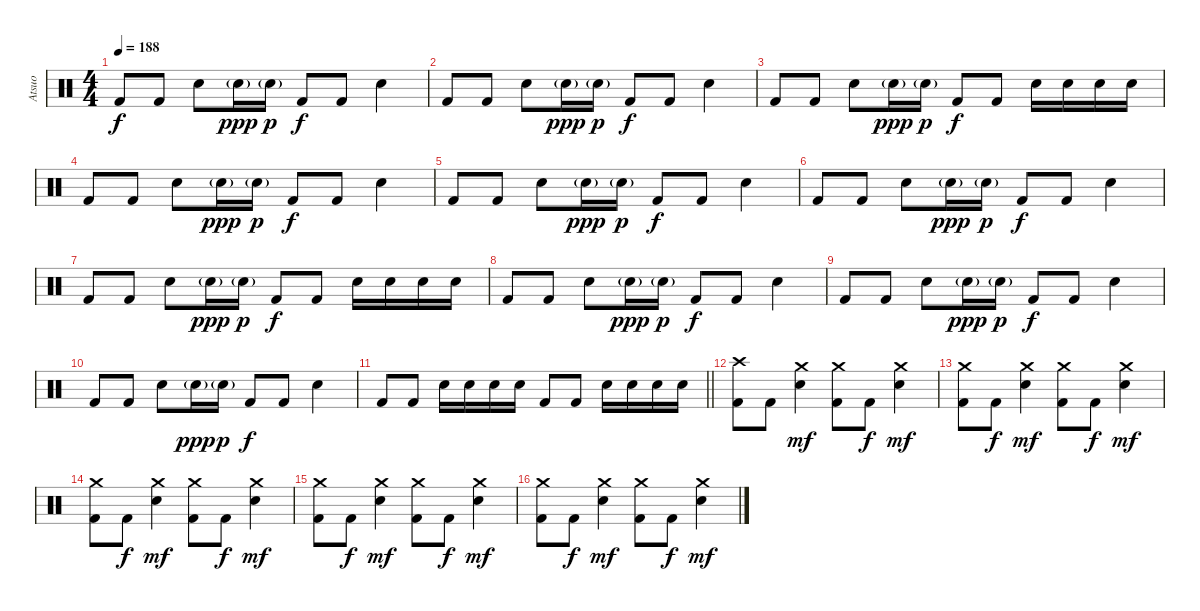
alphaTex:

\track ("Atsuo" "Atsuo") {instrument percussion}
\staff {score}
\articulation defaults
\ts (4 4)
\tempo 188
\clef neutral
\ks c "Kick (hit) 2".8{dy f} "Kick (hit) 2".8 "Electric Snare (hit)".8 "Electric Snare (hit)"{g}.16{dy ppp} "Electric Snare (hit)"{g}.16{dy p} "Kick (hit) 2".8{dy f} "Kick (hit) 2".8 "Electric Snare (hit)".4
|
"Kick (hit) 2".8 "Kick (hit) 2".8 "Electric Snare (hit)".8 "Electric Snare (hit)"{g}.16{dy ppp} "Electric Snare (hit)"{g}.16{dy p} "Kick (hit) 2".8{dy f} "Kick (hit) 2".8 "Electric Snare (hit)".4 |
"Kick (hit) 2".8 "Kick (hit) 2".8 "Electric Snare (hit)".8 "Electric Snare (hit)"{g}.16{dy ppp} "Electric Snare (hit)"{g}.16{dy p} "Kick (hit) 2".8{dy f} "Kick (hit) 2".8 "Electric Snare (hit)".16 "Electric Snare (hit)".16 "Electric Snare (hit)".16 "Electric Snare (hit)".16 |
"Kick (hit) 2".8 "Kick (hit) 2".8 "Electric Snare (hit)".8 "Electric Snare (hit)"{g}.16{dy ppp} "Electric Snare (hit)"{g}.16{dy p} "Kick (hit) 2".8{dy f} "Kick (hit) 2".8 "Electric Snare (hit)".4 |
"Kick (hit) 2".8 "Kick (hit) 2".8 "Electric Snare (hit)".8 "Electric Snare (hit)"{g}.16{dy ppp} "Electric Snare (hit)"{g}.16{dy p} "Kick (hit) 2".8{dy f} "Kick (hit) 2".8 "Electric Snare (hit)".4 |
"Kick (hit) 2".8 "Kick (hit) 2".8 "Electric Snare (hit)".8 "Electric Snare (hit)"{g}.16{dy ppp} "Electric Snare (hit)"{g}.16{dy p} "Kick (hit) 2".8{dy f} "Kick (hit) 2".8 "Electric Snare (hit)".4 |
"Kick (hit) 2".8 "Kick (hit) 2".8 "Electric Snare (hit)".8 "Electric Snare (hit)"{g}.16{dy ppp} "Electric Snare (hit)"{g}.16{dy p} "Kick (hit) 2".8{dy f} "Kick (hit) 2".8 "Electric Snare (hit)".16 "Electric Snare (hit)".16 "Electric Snare (hit)".16 "Electric Snare (hit)".16 |
"Kick (hit) 2".8 "Kick (hit) 2".8 "Electric Snare (hit)".8 "Electric Snare (hit)"{g}.16{dy ppp} "Electric Snare (hit)"{g}.16{dy p} "Kick (hit) 2".8{dy f} "Kick (hit) 2".8 "Electric Snare (hit)".4 |
"Kick (hit) 2".8 "Kick (hit) 2".8 "Electric Snare (hit)".8 "Electric Snare (hit)"{g}.16{dy ppp} "Electric Snare (hit)"{g}.16{dy p} "Kick (hit) 2".8{dy f} "Kick (hit) 2".8 "Electric Snare (hit)".4 |
"Kick (hit) 2".8 "Kick (hit) 2".8 "Electric Snare (hit)".8 "Electric Snare (hit)"{g}.16{dy ppp} "Electric Snare (hit)"{g}.16{dy p} "Kick (hit) 2".8{dy f} "Kick (hit) 2".8 "Electric Snare (hit)".4 |
\barLineRight lightlight "Kick (hit) 2".8 "Kick (hit) 2".8 "Electric Snare (hit)".16 "Electric Snare (hit)".16 "Electric Snare (hit)".16 "Electric Snare (hit)".16 "Kick (hit) 2".8 "Kick (hit) 2".8 "Electric Snare (hit)".16 "Electric Snare (hit)".16 "Electric Snare (hit)".16 "Electric Snare (hit)".16
|
\section ("" "")
("Crash high (hit)" "Kick (hit) 2").8 "Kick (hit) 2".8 ("Crash medium (hit)" "Electric Snare (hit)").4{dy mf} ("Crash medium (hit)" "Kick (hit) 2").8 "Kick (hit) 2".8{dy f} ("Crash medium (hit)" "Electric Snare (hit)").4{dy mf} |
("Crash medium (hit)" "Kick (hit) 2").8 "Kick (hit) 2".8{dy f} ("Crash medium (hit)" "Electric Snare (hit)").4{dy mf} ("Crash medium (hit)" "Kick (hit) 2").8 "Kick (hit) 2".8{dy f} ("Crash medium (hit)" "Electric Snare (hit)").4{dy mf} |
("Crash medium (hit)" "Kick (hit) 2").8 "Kick (hit) 2".8{dy f} ("Crash medium (hit)" "Electric Snare (hit)").4{dy mf} ("Crash medium (hit)" "Kick (hit) 2").8 "Kick (hit) 2".8{dy f} ("Crash medium (hit)" "Electric Snare (hit)").4{dy mf} |
("Crash medium (hit)" "Kick (hit) 2").8 "Kick (hit) 2".8{dy f} ("Crash medium (hit)" "Electric Snare (hit)").4{dy mf} ("Crash medium (hit)" "Kick (hit) 2").8 "Kick (hit) 2".8{dy f} ("Crash medium (hit)" "Electric Snare (hit)").4{dy mf} |
("Crash medium (hit)" "Kick (hit) 2").8 "Kick (hit) 2".8{dy f} ("Crash medium (hit)" "Electric Snare (hit)").4{dy mf} ("Crash medium (hit)" "Kick (hit) 2").8 "Kick (hit) 2".8{dy f} ("Crash medium (hit)" "Electric Snare (hit)").4{dy mf}
